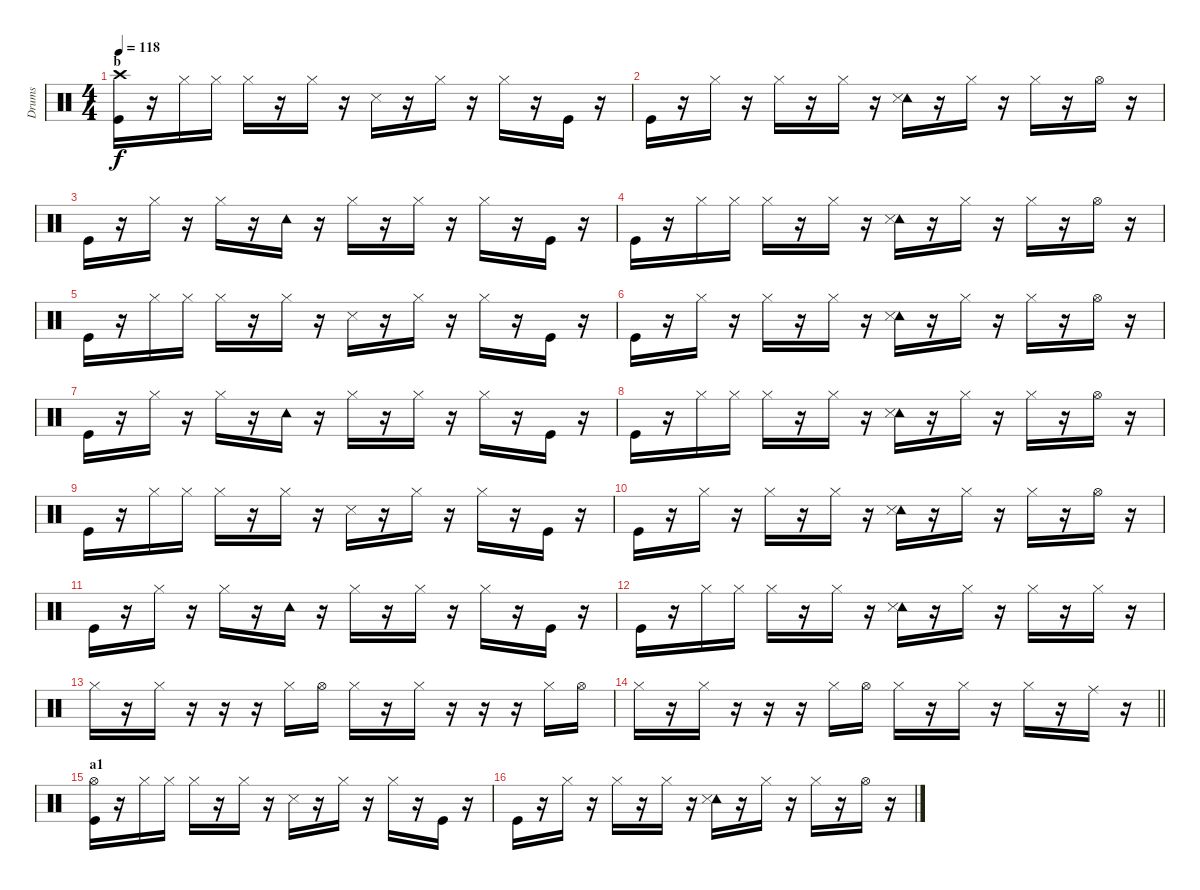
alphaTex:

\track ("Drums" "Drums") {instrument percussion}
\staff {score}
\articulation defaults
\ts (4 4)
\section ("" "b")
\tempo 118
\clef neutral
\ks c
("Kick (hit)" "Crash high (hit)").16{dy f} r.16 "Hi-Hat (closed)".16 "Hi-Hat (closed)".16 "Hi-Hat (closed)".16 r.16 "Hi-Hat (closed)".16 r.16 "Snare (side stick) 3".16 r.16 "Hi-Hat (closed)".16 r.16 "Hi-Hat (closed)".16 r.16 "Kick (hit)".16 r.16 |
"Kick (hit)".16 r.16 "Hi-Hat (closed)".16 r.16 "Hi-Hat (closed)".16 r.16 "Hi-Hat (closed)".16 r.16 ("Tambourine (hit)" "Snare (side stick) 3").16 r.16 "Hi-Hat (closed)".16 r.16 "Hi-Hat (closed)".16 r.16 "Hi-Hat (open)".16 r.16 |
"Kick (hit)".16 r.16 "Hi-Hat (closed)".16 r.16 "Hi-Hat (closed)".16 r.16 "Tambourine (hit)".16 r.16 "Hi-Hat (closed)".16 r.16 "Hi-Hat (closed)".16 r.16 "Hi-Hat (closed)".16 r.16 "Kick (hit)".16 r.16 |
"Kick (hit)".16 r.16 "Hi-Hat (closed)".16 "Hi-Hat (closed)".16 "Hi-Hat (closed)".16 r.16 "Hi-Hat (closed)".16 r.16 ("Tambourine (hit)" "Snare (side stick) 3").16 r.16 "Hi-Hat (closed)".16 r.16 "Hi-Hat (closed)".16 r.16 "Hi-Hat (open)".16 r.16 |
"Kick (hit)".16 r.16 "Hi-Hat (closed)".16 "Hi-Hat (closed)".16 "Hi-Hat (closed)".16 r.16 "Hi-Hat (closed)".16 r.16 "Snare (side stick) 3".16 r.16 "Hi-Hat (closed)".16 r.16 "Hi-Hat (closed)".16 r.16 "Kick (hit)".16 r.16 |
"Kick (hit)".16 r.16 "Hi-Hat (closed)".16 r.16 "Hi-Hat (closed)".16 r.16 "Hi-Hat (closed)".16 r.16 ("Tambourine (hit)" "Snare (side stick) 3").16 r.16 "Hi-Hat (closed)".16 r.16 "Hi-Hat (closed)".16 r.16 "Hi-Hat (open)".16 r.16 |
"Kick (hit)".16 r.16 "Hi-Hat (closed)".16 r.16 "Hi-Hat (closed)".16 r.16 "Tambourine (hit)".16 r.16 "Hi-Hat (closed)".16 r.16 "Hi-Hat (closed)".16 r.16 "Hi-Hat (closed)".16 r.16 "Kick (hit)".16 r.16 |
"Kick (hit)".16 r.16 "Hi-Hat (closed)".16 "Hi-Hat (closed)".16 "Hi-Hat (closed)".16 r.16 "Hi-Hat (closed)".16 r.16 ("Tambourine (hit)" "Snare (side stick) 3").16 r.16 "Hi-Hat (closed)".16 r.16 "Hi-Hat (closed)".16 r.16 "Hi-Hat (open)".16 r.16 |
"Kick (hit)".16 r.16 "Hi-Hat (closed)".16 "Hi-Hat (closed)".16 "Hi-Hat (closed)".16 r.16 "Hi-Hat (closed)".16 r.16 "Snare (side stick) 3".16 r.16 "Hi-Hat (closed)".16 r.16 "Hi-Hat (closed)".16 r.16 "Kick (hit)".16 r.16 |
"Kick (hit)".16 r.16 "Hi-Hat (closed)".16 r.16 "Hi-Hat (closed)".16 r.16 "Hi-Hat (closed)".16 r.16 ("Tambourine (hit)" "Snare (side stick) 3").16 r.16 "Hi-Hat (closed)".16 r.16 "Hi-Hat (closed)".16 r.16 "Hi-Hat (open)".16 r.16 |
"Kick (hit)".16 r.16 "Hi-Hat (closed)".16 r.16 "Hi-Hat (closed)".16 r.16 "Tambourine (hit)".16 r.16 "Hi-Hat (closed)".16 r.16 "Hi-Hat (closed)".16 r.16 "Hi-Hat (closed)".16 r.16 "Kick (hit)".16 r.16 |
"Kick (hit)".16 r.16 "Hi-Hat (closed)".16 "Hi-Hat (closed)".16 "Hi-Hat (closed)".16 r.16 "Hi-Hat (closed)".16 r.16 ("Tambourine (hit)" "Snare (side stick) 3").16 r.16 "Hi-Hat (closed)".16 r.16 "Hi-Hat (closed)".16 r.16 "Hi-Hat (closed)".16 r.16 |
"Hi-Hat (closed)".16 r.16 "Hi-Hat (closed)".16 r.16 r.16 r.16 "Hi-Hat (closed)".16 "Hi-Hat (open)".16 "Hi-Hat (closed)".16 r.16 "Hi-Hat (closed)".16 r.16 r.16 r.16 "Hi-Hat (closed)".16 "Hi-Hat (open)".16 |
\barLineRight lightlight "Hi-Hat (closed)".16
r.16 "Hi-Hat (closed)".16 r.16 r.16 r.16 "Hi-Hat (closed)".16 "Hi-Hat (open)".16 "Hi-Hat (closed)".16 r.16 "Hi-Hat (closed)".16 r.16 "Hi-Hat (closed)".16 r.16 "Ride (middle)".16 r.16 |
\section ("" "a1")
("Kick (hit)" "Hi-Hat (open)").16 r.16 "Hi-Hat (closed)".16 "Hi-Hat (closed)".16 "Hi-Hat (closed)".16 r.16 "Hi-Hat (closed)".16 r.16 "Snare (side stick) 3".16 r.16 "Hi-Hat (closed)".16 r.16 "Hi-Hat (closed)".16 r.16 "Kick (hit)".16 r.16 |
"Kick (hit)".16 r.16 "Hi-Hat (closed)".16 r.16 "Hi-Hat (closed)".16 r.16 "Hi-Hat (closed)".16 r.16 ("Tambourine (hit)" "Snare (side stick) 3").16 r.16 "Hi-Hat (closed)".16 r.16 "Hi-Hat (closed)".16 r.16 "Hi-Hat (open)".16 r.16
